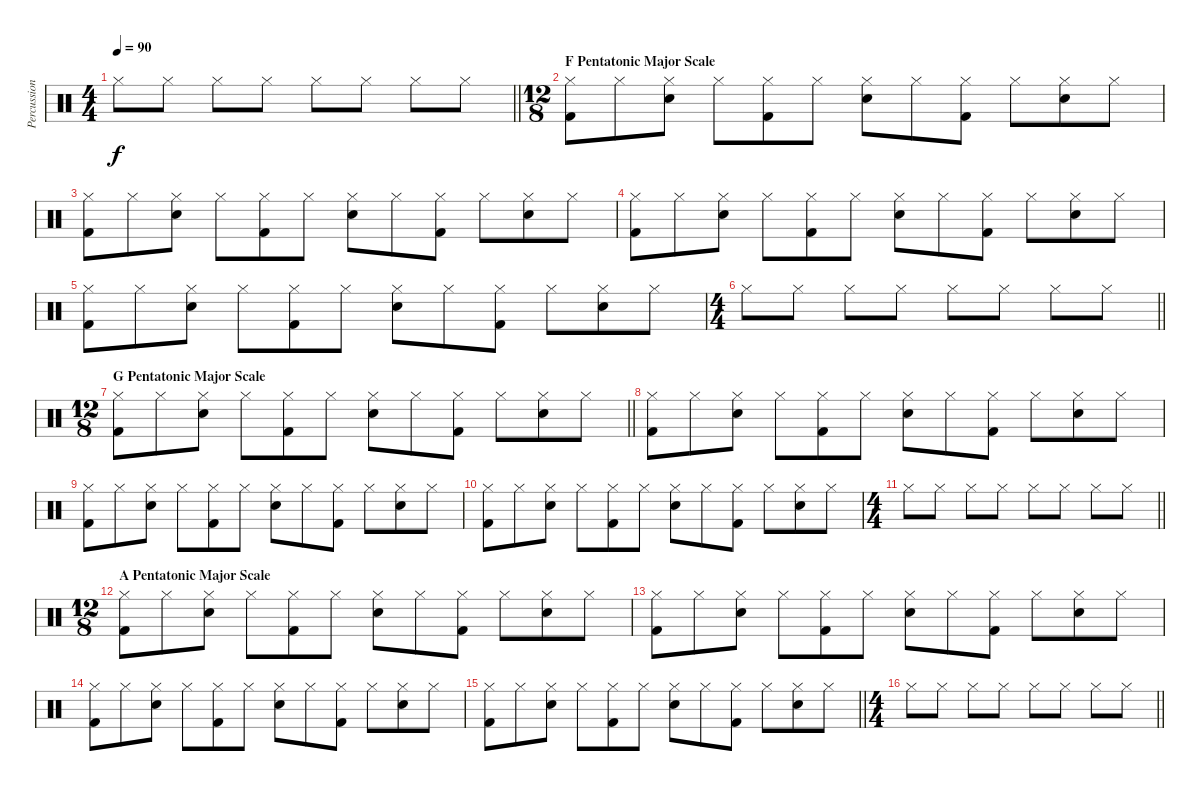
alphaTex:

\track ("Percussion" "Percussion") {instrument percussion}
\staff {score}
\articulation defaults
\ts (4 4)
\tempo 90
\clef neutral
\barLineRight lightlight
\ks c "Hi-Hat (closed)".8{dy f} "Hi-Hat (closed)".8 "Hi-Hat (closed)".8 "Hi-Hat (closed)".8 "Hi-Hat (closed)".8 "Hi-Hat (closed)".8 "Hi-Hat (closed)".8 "Hi-Hat (closed)".8
|
\ts (12 8)
\section ("" "F Pentatonic Major Scale")
("Kick (hit) 2" "Hi-Hat (closed)").8 "Hi-Hat (closed)".8 ("Snare (hit) 2" "Hi-Hat (closed)").8 "Hi-Hat (closed)".8 ("Kick (hit) 2" "Hi-Hat (closed)").8 "Hi-Hat (closed)".8 ("Snare (hit) 2" "Hi-Hat (closed)").8 "Hi-Hat (closed)".8 ("Kick (hit) 2" "Hi-Hat (closed)").8 "Hi-Hat (closed)".8 ("Snare (hit) 2" "Hi-Hat (closed)").8 "Hi-Hat (closed)".8 |
("Kick (hit) 2" "Hi-Hat (closed)").8 "Hi-Hat (closed)".8 ("Snare (hit) 2" "Hi-Hat (closed)").8 "Hi-Hat (closed)".8 ("Kick (hit) 2" "Hi-Hat (closed)").8 "Hi-Hat (closed)".8 ("Snare (hit) 2" "Hi-Hat (closed)").8 "Hi-Hat (closed)".8 ("Kick (hit) 2" "Hi-Hat (closed)").8 "Hi-Hat (closed)".8 ("Snare (hit) 2" "Hi-Hat (closed)").8 "Hi-Hat (closed)".8 |
("Kick (hit) 2" "Hi-Hat (closed)").8 "Hi-Hat (closed)".8 ("Snare (hit) 2" "Hi-Hat (closed)").8 "Hi-Hat (closed)".8 ("Kick (hit) 2" "Hi-Hat (closed)").8 "Hi-Hat (closed)".8 ("Snare (hit) 2" "Hi-Hat (closed)").8 "Hi-Hat (closed)".8 ("Kick (hit) 2" "Hi-Hat (closed)").8 "Hi-Hat (closed)".8 ("Snare (hit) 2" "Hi-Hat (closed)").8 "Hi-Hat (closed)".8 |
("Kick (hit) 2" "Hi-Hat (closed)").8 "Hi-Hat (closed)".8 ("Snare (hit) 2" "Hi-Hat (closed)").8 "Hi-Hat (closed)".8 ("Kick (hit) 2" "Hi-Hat (closed)").8 "Hi-Hat (closed)".8 ("Snare (hit) 2" "Hi-Hat (closed)").8 "Hi-Hat (closed)".8 ("Kick (hit) 2" "Hi-Hat (closed)").8 "Hi-Hat (closed)".8 ("Snare (hit) 2" "Hi-Hat (closed)").8 "Hi-Hat (closed)".8 |
\ts (4 4)
\barLineRight lightlight "Hi-Hat (closed)".8 "Hi-Hat (closed)".8 "Hi-Hat (closed)".8 "Hi-Hat (closed)".8 "Hi-Hat (closed)".8 "Hi-Hat (closed)".8 "Hi-Hat (closed)".8 "Hi-Hat (closed)".8
|
\ts (12 8)
\section ("" "G Pentatonic Major Scale")
\barLineRight lightlight
("Kick (hit) 2" "Hi-Hat (closed)").8 "Hi-Hat (closed)".8 ("Snare (hit) 2" "Hi-Hat (closed)").8 "Hi-Hat (closed)".8 ("Kick (hit) 2" "Hi-Hat (closed)").8 "Hi-Hat (closed)".8 ("Snare (hit) 2" "Hi-Hat (closed)").8 "Hi-Hat (closed)".8 ("Kick (hit) 2" "Hi-Hat (closed)").8 "Hi-Hat (closed)".8 ("Snare (hit) 2" "Hi-Hat (closed)").8 "Hi-Hat (closed)".8 |
("Kick (hit) 2" "Hi-Hat (closed)").8 "Hi-Hat (closed)".8 ("Snare (hit) 2" "Hi-Hat (closed)").8 "Hi-Hat (closed)".8 ("Kick (hit) 2" "Hi-Hat (closed)").8 "Hi-Hat (closed)".8 ("Snare (hit) 2" "Hi-Hat (closed)").8 "Hi-Hat (closed)".8 ("Kick (hit) 2" "Hi-Hat (closed)").8 "Hi-Hat (closed)".8 ("Snare (hit) 2" "Hi-Hat (closed)").8 "Hi-Hat (closed)".8 |
("Kick (hit) 2" "Hi-Hat (closed)").8 "Hi-Hat (closed)".8 ("Snare (hit) 2" "Hi-Hat (closed)").8 "Hi-Hat (closed)".8 ("Kick (hit) 2" "Hi-Hat (closed)").8 "Hi-Hat (closed)".8 ("Snare (hit) 2" "Hi-Hat (closed)").8 "Hi-Hat (closed)".8 ("Kick (hit) 2" "Hi-Hat (closed)").8 "Hi-Hat (closed)".8 ("Snare (hit) 2" "Hi-Hat (closed)").8 "Hi-Hat (closed)".8 |
("Kick (hit) 2" "Hi-Hat (closed)").8 "Hi-Hat (closed)".8 ("Snare (hit) 2" "Hi-Hat (closed)").8 "Hi-Hat (closed)".8 ("Kick (hit) 2" "Hi-Hat (closed)").8 "Hi-Hat (closed)".8 ("Snare (hit) 2" "Hi-Hat (closed)").8 "Hi-Hat (closed)".8 ("Kick (hit) 2" "Hi-Hat (closed)").8 "Hi-Hat (closed)".8 ("Snare (hit) 2" "Hi-Hat (closed)").8 "Hi-Hat (closed)".8 |
\ts (4 4)
\barLineRight lightlight "Hi-Hat (closed)".8 "Hi-Hat (closed)".8 "Hi-Hat (closed)".8 "Hi-Hat (closed)".8 "Hi-Hat (closed)".8 "Hi-Hat (closed)".8 "Hi-Hat (closed)".8 "Hi-Hat (closed)".8
|
\ts (12 8)
\section ("" "A Pentatonic Major Scale")
("Kick (hit) 2" "Hi-Hat (closed)").8 "Hi-Hat (closed)".8 ("Snare (hit) 2" "Hi-Hat (closed)").8 "Hi-Hat (closed)".8 ("Kick (hit) 2" "Hi-Hat (closed)").8 "Hi-Hat (closed)".8 ("Snare (hit) 2" "Hi-Hat (closed)").8 "Hi-Hat (closed)".8 ("Kick (hit) 2" "Hi-Hat (closed)").8 "Hi-Hat (closed)".8 ("Snare (hit) 2" "Hi-Hat (closed)").8 "Hi-Hat (closed)".8 |
("Kick (hit) 2" "Hi-Hat (closed)").8 "Hi-Hat (closed)".8 ("Snare (hit) 2" "Hi-Hat (closed)").8 "Hi-Hat (closed)".8 ("Kick (hit) 2" "Hi-Hat (closed)").8 "Hi-Hat (closed)".8 ("Snare (hit) 2" "Hi-Hat (closed)").8 "Hi-Hat (closed)".8 ("Kick (hit) 2" "Hi-Hat (closed)").8 "Hi-Hat (closed)".8 ("Snare (hit) 2" "Hi-Hat (closed)").8 "Hi-Hat (closed)".8 |
("Kick (hit) 2" "Hi-Hat (closed)").8 "Hi-Hat (closed)".8 ("Snare (hit) 2" "Hi-Hat (closed)").8 "Hi-Hat (closed)".8 ("Kick (hit) 2" "Hi-Hat (closed)").8 "Hi-Hat (closed)".8 ("Snare (hit) 2" "Hi-Hat (closed)").8 "Hi-Hat (closed)".8 ("Kick (hit) 2" "Hi-Hat (closed)").8 "Hi-Hat (closed)".8 ("Snare (hit) 2" "Hi-Hat (closed)").8 "Hi-Hat (closed)".8 |
\barLineRight lightlight
("Kick (hit) 2" "Hi-Hat (closed)").8 "Hi-Hat (closed)".8 ("Snare (hit) 2" "Hi-Hat (closed)").8 "Hi-Hat (closed)".8 ("Kick (hit) 2" "Hi-Hat (closed)").8 "Hi-Hat (closed)".8 ("Snare (hit) 2" "Hi-Hat (closed)").8 "Hi-Hat (closed)".8 ("Kick (hit) 2" "Hi-Hat (closed)").8 "Hi-Hat (closed)".8 ("Snare (hit) 2" "Hi-Hat (closed)").8 "Hi-Hat (closed)".8 |
\ts (4 4)
\barLineRight lightlight "Hi-Hat (closed)".8 "Hi-Hat (closed)".8 "Hi-Hat (closed)".8 "Hi-Hat (closed)".8 "Hi-Hat (closed)".8 "Hi-Hat (closed)".8 "Hi-Hat (closed)".8 "Hi-Hat (closed)".8
